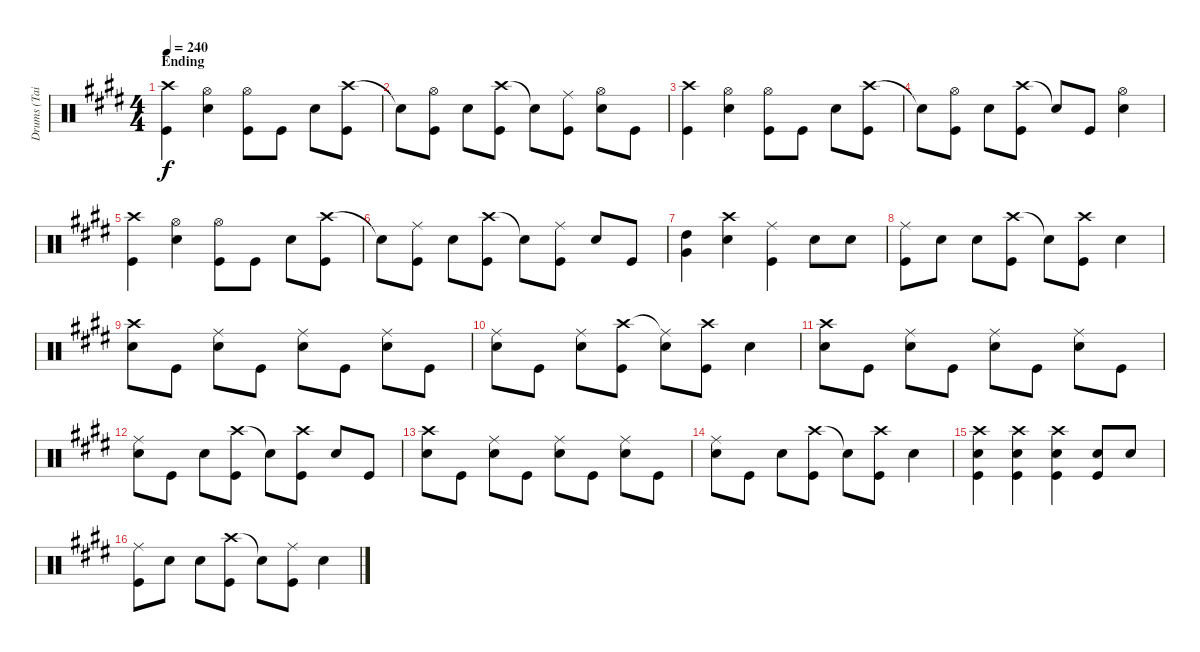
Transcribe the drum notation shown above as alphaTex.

\track ("Drums (Tainaka Ritsu)" "Drums (Tai") {instrument percussion}
\staff {score}
\articulation defaults
\ts (4 4)
\section ("" "Ending")
\tempo 240
\clef neutral
\ks e
("Crash high (hit)" "Kick (hit)").4{dy f} ("Hi-Hat (open)" "Snare (hit) 2").4 ("Hi-Hat (open)" "Kick (hit)").8 "Kick (hit)".8 "Snare (hit) 2".8 ("Crash high (hit)" "Kick (hit)").8 |
"Snare (hit)"{t}.8 ("Hi-Hat (open)" "Kick (hit)").8 "Snare (hit) 2".8 ("Crash high (hit)" "Kick (hit)").8 "Snare (hit)"{t}.8 ("Ride (middle)" "Kick (hit)").8 ("Hi-Hat (open)" "Snare (hit) 2").8 "Kick (hit)".8 |
("Crash high (hit)" "Kick (hit)").4 ("Hi-Hat (open)" "Snare (hit) 2").4 ("Hi-Hat (open)" "Kick (hit)").8 "Kick (hit)".8 "Snare (hit) 2".8 ("Crash high (hit)" "Kick (hit)").8 |
"Snare (hit)"{t}.8 ("Hi-Hat (open)" "Kick (hit)").8 "Snare (hit) 2".8 ("Crash high (hit)" "Kick (hit)").8 "Snare (hit)"{t}.8 "Kick (hit)".8 ("Hi-Hat (open)" "Snare (hit) 2").4 |
("Crash high (hit)" "Kick (hit)").4 ("Hi-Hat (open)" "Snare (hit) 2").4 ("Hi-Hat (open)" "Kick (hit)").8 "Kick (hit)".8 "Snare (hit) 2".8 ("Crash high (hit)" "Kick (hit)").8 |
"Snare (hit)"{t}.8 ("Ride (middle)" "Kick (hit)").8 "Snare (hit) 2".8 ("Crash high (hit)" "Kick (hit)").8 "Snare (hit)"{t}.8 ("Ride (middle)" "Kick (hit)").8 "Snare (hit) 2".8 "Kick (hit)".8 |
("High Tom (hit)" "Very Low Tom (hit)").4 ("Crash high (hit)" "Snare (hit) 2").4 ("Ride (middle)" "Kick (hit)").4 "Snare (hit) 2".8 "Snare (hit) 2".8 |
("Ride (middle)" "Kick (hit)").8 "Snare (hit) 2".8 "Snare (hit) 2".8 ("Crash high (hit)" "Kick (hit)").8 "Snare (hit)"{t}.8 ("Crash high (hit)" "Kick (hit)").8 "Snare (hit) 2".4 |
("Crash high (hit)" "Snare (hit) 2").8 "Kick (hit)".8 ("Ride (middle)" "Snare (hit) 2").8 "Kick (hit)".8 ("Ride (middle)" "Snare (hit) 2").8 "Kick (hit)".8 ("Ride (middle)" "Snare (hit) 2").8 "Kick (hit)".8 |
("Ride (middle)" "Snare (hit) 2").8 "Kick (hit)".8 ("Ride (middle)" "Snare (hit) 2").8 ("Crash high (hit)" "Kick (hit)").8 ("Ride (middle)"{t} "Snare (hit) 2").8 ("Crash high (hit)" "Kick (hit)").8 "Snare (hit) 2".4 |
("Crash high (hit)" "Snare (hit) 2").8 "Kick (hit)".8 ("Ride (middle)" "Snare (hit) 2").8 "Kick (hit)".8 ("Ride (middle)" "Snare (hit) 2").8 "Kick (hit)".8 ("Ride (middle)" "Snare (hit) 2").8 "Kick (hit)".8 |
("Ride (middle)" "Snare (hit) 2").8 "Kick (hit)".8 "Snare (hit) 2".8 ("Crash high (hit)" "Kick (hit)").8 "Snare (hit)"{t}.8 ("Crash high (hit)" "Kick (hit)").8 "Snare (hit) 2".8 "Kick (hit)".8 |
("Crash high (hit)" "Snare (hit) 2").8 "Kick (hit)".8 ("Ride (middle)" "Snare (hit) 2").8 "Kick (hit)".8 ("Ride (middle)" "Snare (hit) 2").8 "Kick (hit)".8 ("Ride (middle)" "Snare (hit) 2").8 "Kick (hit)".8 |
("Ride (middle)" "Snare (hit) 2").8 "Kick (hit)".8 "Snare (hit) 2".8 ("Crash high (hit)" "Kick (hit)").8 "Snare (hit)"{t}.8 ("Crash high (hit)" "Kick (hit)").8 "Snare (hit) 2".4 |
("Crash high (hit)" "Snare (hit) 2" "Kick (hit)").4 ("Crash high (hit)" "Snare (hit) 2" "Kick (hit)").4 ("Crash high (hit)" "Snare (hit) 2" "Kick (hit)").4 ("Snare (hit) 2" "Kick (hit)").8 "Snare (hit) 2".8 |
("Ride (middle)" "Kick (hit)").8 "Snare (hit) 2".8 "Snare (hit) 2".8 ("Crash high (hit)" "Kick (hit)").8 "Snare (hit)"{t}.8 ("Ride (middle)" "Kick (hit)").8 "Snare (hit) 2".4
